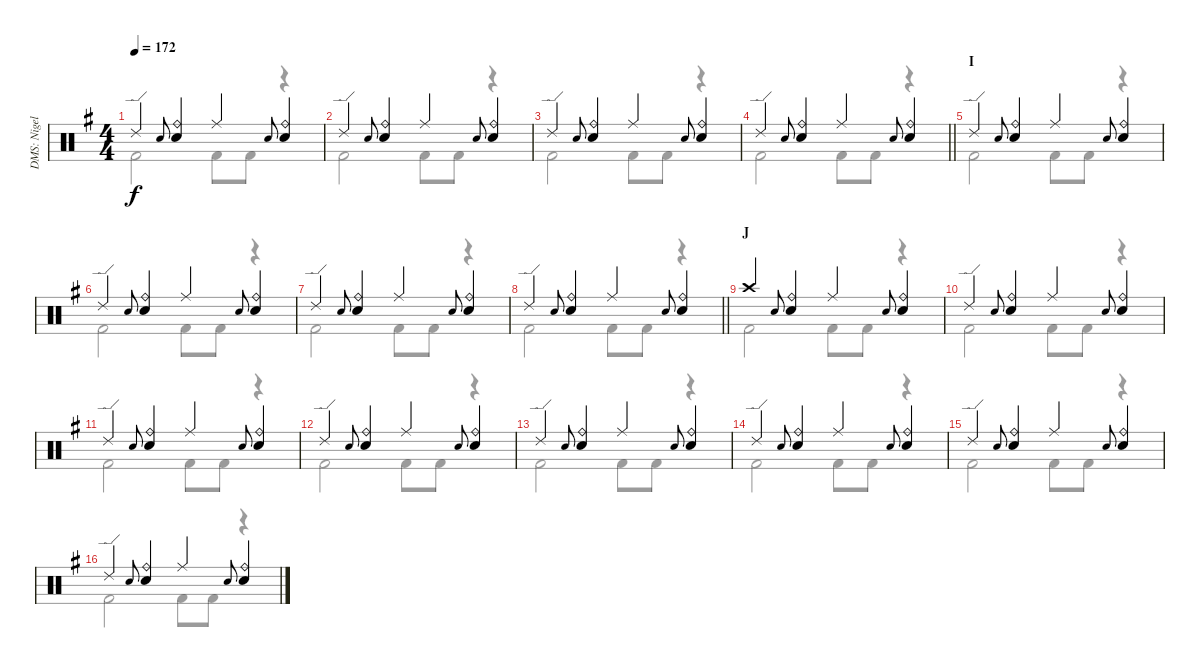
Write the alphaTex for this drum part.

\track ("DMS: Nigel Olsson" "DMS: Nigel") {instrument percussion}
\staff {score}
\articulation defaults
\voice
\ts (4 4)
\tempo 172
\clef neutral
\ks g "Ride (edge) 2".4{dy f} "Snare (hit) 2".8{gr onbeat}
("Ride (bell)" "Electric Snare (hit)").4 "Ride (middle)".4 "Snare (hit) 2".8{gr onbeat} ("Ride (bell)" "Electric Snare (hit)").4 |
"Ride (edge) 2".4 "Snare (hit) 2".8{gr onbeat} ("Ride (bell)" "Electric Snare (hit)").4 "Ride (middle)".4 "Snare (hit) 2".8{gr onbeat} ("Ride (bell)" "Electric Snare (hit)").4 |
"Ride (edge) 2".4 "Snare (hit) 2".8{gr onbeat} ("Ride (bell)" "Electric Snare (hit)").4 "Ride (middle)".4 "Snare (hit) 2".8{gr onbeat} ("Ride (bell)" "Electric Snare (hit)").4 |
\barLineRight lightlight "Ride (edge) 2".4 "Snare (hit) 2".8{gr onbeat}
("Ride (bell)" "Electric Snare (hit)").4 "Ride (middle)".4 "Snare (hit) 2".8{gr onbeat} ("Ride (bell)" "Electric Snare (hit)").4 |
\section ("" "I")
"Ride (edge) 2".4 "Snare (hit) 2".8{gr onbeat} ("Ride (bell)" "Electric Snare (hit)").4 "Ride (middle)".4 "Snare (hit) 2".8{gr onbeat} ("Ride (bell)" "Electric Snare (hit)").4 |
"Ride (edge) 2".4 "Snare (hit) 2".8{gr onbeat} ("Ride (bell)" "Electric Snare (hit)").4 "Ride (middle)".4 "Snare (hit) 2".8{gr onbeat} ("Ride (bell)" "Electric Snare (hit)").4 |
"Ride (edge) 2".4 "Snare (hit) 2".8{gr onbeat} ("Ride (bell)" "Electric Snare (hit)").4 "Ride (middle)".4 "Snare (hit) 2".8{gr onbeat} ("Ride (bell)" "Electric Snare (hit)").4 |
\barLineRight lightlight "Ride (edge) 2".4 "Snare (hit) 2".8{gr onbeat}
("Ride (bell)" "Electric Snare (hit)").4 "Ride (middle)".4 "Snare (hit) 2".8{gr onbeat} ("Ride (bell)" "Electric Snare (hit)").4 |
\section ("" "J")
"Crash high (hit)".4 "Snare (hit) 2".8{gr onbeat} ("Ride (bell)" "Electric Snare (hit)").4 "Ride (middle)".4 "Snare (hit) 2".8{gr onbeat} ("Ride (bell)" "Electric Snare (hit)").4 |
"Ride (edge) 2".4 "Snare (hit) 2".8{gr onbeat} ("Ride (bell)" "Electric Snare (hit)").4 "Ride (middle)".4 "Snare (hit) 2".8{gr onbeat} ("Ride (bell)" "Electric Snare (hit)").4 |
"Ride (edge) 2".4 "Snare (hit) 2".8{gr onbeat} ("Ride (bell)" "Electric Snare (hit)").4 "Ride (middle)".4 "Snare (hit) 2".8{gr onbeat} ("Ride (bell)" "Electric Snare (hit)").4 |
"Ride (edge) 2".4 "Snare (hit) 2".8{gr onbeat} ("Ride (bell)" "Electric Snare (hit)").4 "Ride (middle)".4 "Snare (hit) 2".8{gr onbeat} ("Ride (bell)" "Electric Snare (hit)").4 |
"Ride (edge) 2".4 "Snare (hit) 2".8{gr onbeat} ("Ride (bell)" "Electric Snare (hit)").4 "Ride (middle)".4 "Snare (hit) 2".8{gr onbeat} ("Ride (bell)" "Electric Snare (hit)").4 |
"Ride (edge) 2".4 "Snare (hit) 2".8{gr onbeat} ("Ride (bell)" "Electric Snare (hit)").4 "Ride (middle)".4 "Snare (hit) 2".8{gr onbeat} ("Ride (bell)" "Electric Snare (hit)").4 |
"Ride (edge) 2".4 "Snare (hit) 2".8{gr onbeat} ("Ride (bell)" "Electric Snare (hit)").4 "Ride (middle)".4 "Snare (hit) 2".8{gr onbeat} ("Ride (bell)" "Electric Snare (hit)").4 |
"Ride (edge) 2".4 "Snare (hit) 2".8{gr onbeat} ("Ride (bell)" "Electric Snare (hit)").4 "Ride (middle)".4 "Snare (hit) 2".8{gr onbeat} ("Ride (bell)" "Electric Snare (hit)").4
\voice
\clef neutral
\ottava regular
\simile none
\ks g "Kick (hit) 2".2{dy f} "Kick (hit) 2".8 "Kick (hit) 2".8
r.4 |
"Kick (hit) 2".2 "Kick (hit) 2".8 "Kick (hit) 2".8 r.4 |
"Kick (hit) 2".2 "Kick (hit) 2".8 "Kick (hit) 2".8 r.4 |
\barLineRight lightlight "Kick (hit) 2".2 "Kick (hit) 2".8 "Kick (hit) 2".8
r.4 |
"Kick (hit) 2".2 "Kick (hit) 2".8 "Kick (hit) 2".8 r.4 |
"Kick (hit) 2".2 "Kick (hit) 2".8 "Kick (hit) 2".8 r.4 |
"Kick (hit) 2".2 "Kick (hit) 2".8 "Kick (hit) 2".8 r.4 |
\barLineRight lightlight "Kick (hit) 2".2 "Kick (hit) 2".8 "Kick (hit) 2".8
r.4 |
"Kick (hit) 2".2 "Kick (hit) 2".8 "Kick (hit) 2".8 r.4 |
"Kick (hit) 2".2 "Kick (hit) 2".8 "Kick (hit) 2".8 r.4 |
"Kick (hit) 2".2 "Kick (hit) 2".8 "Kick (hit) 2".8 r.4 |
"Kick (hit) 2".2 "Kick (hit) 2".8 "Kick (hit) 2".8 r.4 |
"Kick (hit) 2".2 "Kick (hit) 2".8 "Kick (hit) 2".8 r.4 |
"Kick (hit) 2".2 "Kick (hit) 2".8 "Kick (hit) 2".8 r.4 |
"Kick (hit) 2".2 "Kick (hit) 2".8 "Kick (hit) 2".8 r.4 |
"Kick (hit) 2".2 "Kick (hit) 2".8 "Kick (hit) 2".8 r.4
